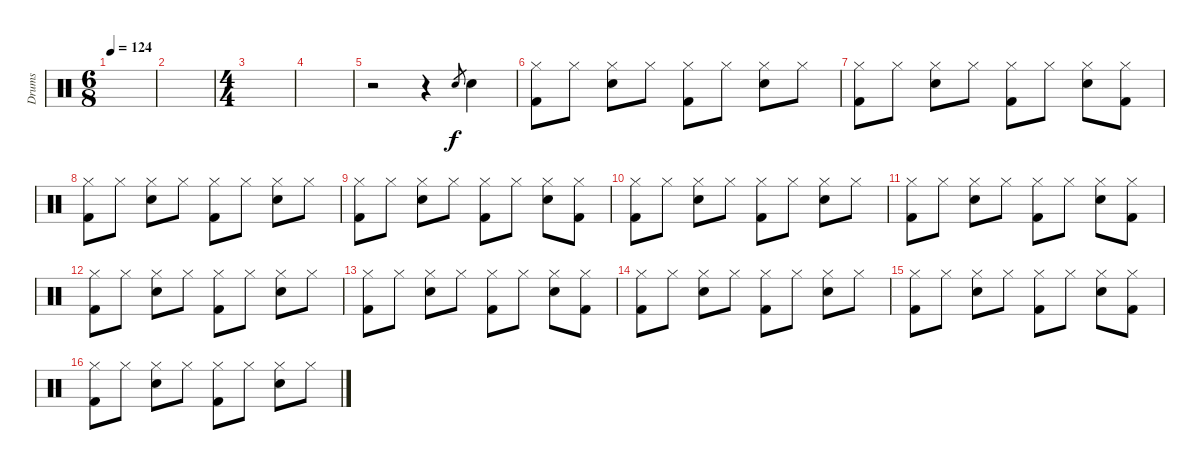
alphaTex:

\track ("Drums" "Drums") {instrument percussion}
\staff {score}
\articulation defaults
\ts (6 8)
\tempo 124
\clef neutral
\ks c
|
|
\ts (4 4)
|
|
r.2 r.4 "Snare (hit) 2".8{gr} "Snare (hit) 2".4 |
("Hi-Hat (closed)" "Kick (hit) 2").8 "Hi-Hat (closed)".8 ("Hi-Hat (closed)" "Snare (hit) 2").8 "Hi-Hat (closed)".8 ("Hi-Hat (closed)" "Kick (hit) 2").8 "Hi-Hat (closed)".8 ("Hi-Hat (closed)" "Snare (hit) 2").8 "Hi-Hat (closed)".8 |
("Hi-Hat (closed)" "Kick (hit) 2").8 "Hi-Hat (closed)".8 ("Hi-Hat (closed)" "Snare (hit) 2").8 "Hi-Hat (closed)".8 ("Hi-Hat (closed)" "Kick (hit) 2").8 "Hi-Hat (closed)".8 ("Hi-Hat (closed)" "Snare (hit) 2").8 ("Hi-Hat (closed)" "Kick (hit) 2").8 |
("Hi-Hat (closed)" "Kick (hit) 2").8 "Hi-Hat (closed)".8 ("Hi-Hat (closed)" "Snare (hit) 2").8 "Hi-Hat (closed)".8 ("Hi-Hat (closed)" "Kick (hit) 2").8 "Hi-Hat (closed)".8 ("Hi-Hat (closed)" "Snare (hit) 2").8 "Hi-Hat (closed)".8 |
("Hi-Hat (closed)" "Kick (hit) 2").8 "Hi-Hat (closed)".8 ("Hi-Hat (closed)" "Snare (hit) 2").8 "Hi-Hat (closed)".8 ("Hi-Hat (closed)" "Kick (hit) 2").8 "Hi-Hat (closed)".8 ("Hi-Hat (closed)" "Snare (hit) 2").8 ("Hi-Hat (closed)" "Kick (hit) 2").8 |
("Hi-Hat (closed)" "Kick (hit) 2").8 "Hi-Hat (closed)".8 ("Hi-Hat (closed)" "Snare (hit) 2").8 "Hi-Hat (closed)".8 ("Hi-Hat (closed)" "Kick (hit) 2").8 "Hi-Hat (closed)".8 ("Hi-Hat (closed)" "Snare (hit) 2").8 "Hi-Hat (closed)".8 |
("Hi-Hat (closed)" "Kick (hit) 2").8 "Hi-Hat (closed)".8 ("Hi-Hat (closed)" "Snare (hit) 2").8 "Hi-Hat (closed)".8 ("Hi-Hat (closed)" "Kick (hit) 2").8 "Hi-Hat (closed)".8 ("Hi-Hat (closed)" "Snare (hit) 2").8 ("Hi-Hat (closed)" "Kick (hit) 2").8 |
("Hi-Hat (closed)" "Kick (hit) 2").8 "Hi-Hat (closed)".8 ("Hi-Hat (closed)" "Snare (hit) 2").8 "Hi-Hat (closed)".8 ("Hi-Hat (closed)" "Kick (hit) 2").8 "Hi-Hat (closed)".8 ("Hi-Hat (closed)" "Snare (hit) 2").8 "Hi-Hat (closed)".8 |
("Hi-Hat (closed)" "Kick (hit) 2").8 "Hi-Hat (closed)".8 ("Hi-Hat (closed)" "Snare (hit) 2").8 "Hi-Hat (closed)".8 ("Hi-Hat (closed)" "Kick (hit) 2").8 "Hi-Hat (closed)".8 ("Hi-Hat (closed)" "Snare (hit) 2").8 ("Hi-Hat (closed)" "Kick (hit) 2").8 |
("Hi-Hat (closed)" "Kick (hit) 2").8 "Hi-Hat (closed)".8 ("Hi-Hat (closed)" "Snare (hit) 2").8 "Hi-Hat (closed)".8 ("Hi-Hat (closed)" "Kick (hit) 2").8 "Hi-Hat (closed)".8 ("Hi-Hat (closed)" "Snare (hit) 2").8 "Hi-Hat (closed)".8 |
("Hi-Hat (closed)" "Kick (hit) 2").8 "Hi-Hat (closed)".8 ("Hi-Hat (closed)" "Snare (hit) 2").8 "Hi-Hat (closed)".8 ("Hi-Hat (closed)" "Kick (hit) 2").8 "Hi-Hat (closed)".8 ("Hi-Hat (closed)" "Snare (hit) 2").8 ("Hi-Hat (closed)" "Kick (hit) 2").8 |
("Hi-Hat (closed)" "Kick (hit) 2").8 "Hi-Hat (closed)".8 ("Hi-Hat (closed)" "Snare (hit) 2").8 "Hi-Hat (closed)".8 ("Hi-Hat (closed)" "Kick (hit) 2").8 "Hi-Hat (closed)".8 ("Hi-Hat (closed)" "Snare (hit) 2").8 "Hi-Hat (closed)".8
